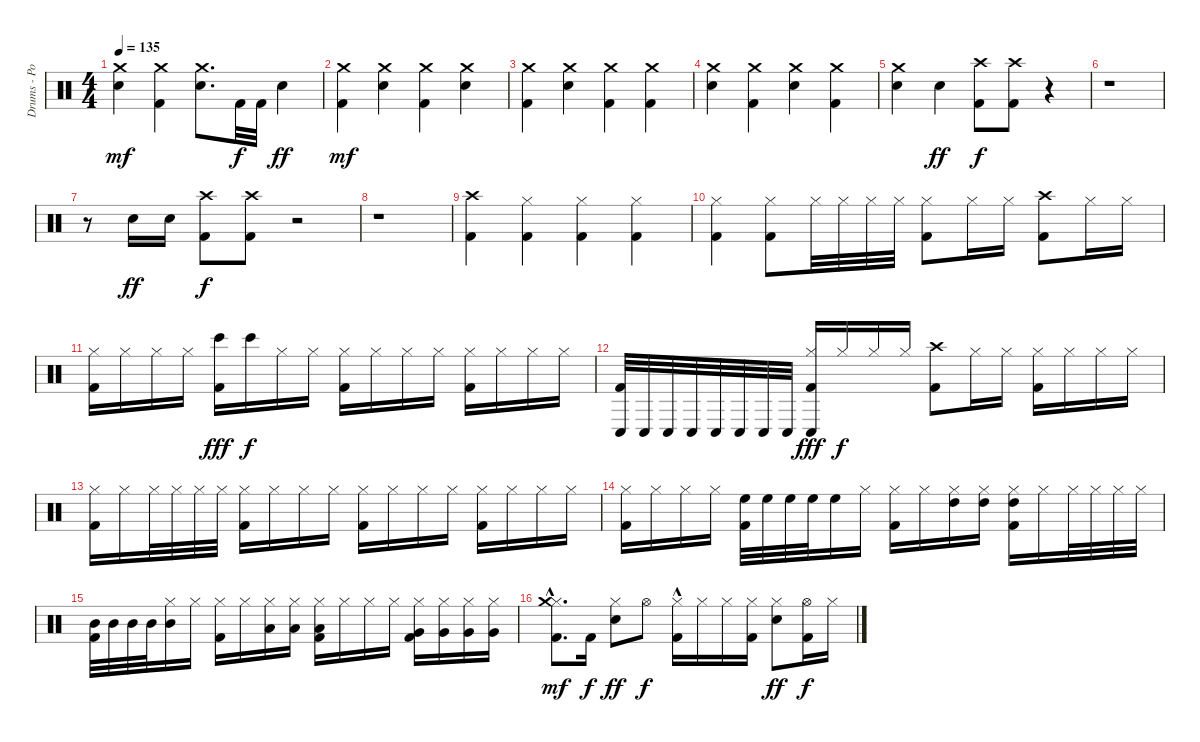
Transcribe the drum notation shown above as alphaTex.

\track ("Drums - Portnoy" "Drums - Po") {instrument percussion}
\staff {score}
\articulation defaults
\ts (4 4)
\tempo 135
\clef neutral
\ks c
("Electric Snare (hit)" "Crash medium (hit)").4{dy mf} ("Kick (hit) 2" "Crash medium (hit)").4 ("Electric Snare (hit)" "Crash medium (hit)").8{d} "Kick (hit) 2".32{dy f} "Kick (hit) 2".32 "Electric Snare (hit)".4{dy ff} |
("Kick (hit) 2" "Crash medium (hit)").4{dy mf} ("Electric Snare (hit)" "Crash medium (hit)").4 ("Kick (hit) 2" "Crash medium (hit)").4 ("Electric Snare (hit)" "Crash medium (hit)").4 |
("Kick (hit) 2" "Crash medium (hit)").4 ("Electric Snare (hit)" "Crash medium (hit)").4 ("Kick (hit) 2" "Crash medium (hit)").4 ("Kick (hit) 2" "Crash medium (hit)").4 |
("Electric Snare (hit)" "Crash medium (hit)").4 ("Kick (hit) 2" "Crash medium (hit)").4 ("Electric Snare (hit)" "Crash medium (hit)").4 ("Kick (hit) 2" "Crash medium (hit)").4 |
("Electric Snare (hit)" "Crash medium (hit)").4 "Electric Snare (hit)".4{dy ff} ("Kick (hit) 2" "Crash high (hit)").8{dy f} ("Crash high (hit)" "Kick (hit) 2").8 r.4 |
r.1 |
r.8 "Electric Snare (hit)".16{dy ff volume 12} "Electric Snare (hit)".16 ("Crash high (hit)" "Kick (hit) 2").8{dy f} ("Crash high (hit)" "Kick (hit) 2").8 r.2 |
r.1 |
("Kick (hit) 2" "Crash high (hit)").4 ("Kick (hit) 2" "Hi-Hat (closed)").4 ("Kick (hit) 2" "Hi-Hat (closed)").4 ("Kick (hit) 2" "Hi-Hat (closed)").4 |
("Kick (hit) 2" "Hi-Hat (closed)").4 ("Kick (hit) 2" "Hi-Hat (closed)").8 "Hi-Hat (closed)".32 "Hi-Hat (closed)".32 "Hi-Hat (closed)".32 "Hi-Hat (closed)".32 ("Kick (hit) 2" "Hi-Hat (closed)").8 "Hi-Hat (closed)".16 "Hi-Hat (closed)".16 ("Kick (hit) 2" "Crash high (hit)").8 "Hi-Hat (closed)".16 "Hi-Hat (closed)".16 |
("Kick (hit) 2" "Hi-Hat (closed)").16 "Hi-Hat (closed)".16 "Hi-Hat (closed)".16 "Hi-Hat (closed)".16 ("Kick (hit) 2" "Bongo High (hit)").16{dy fff} "Bongo High (hit)".16{dy f} "Hi-Hat (closed)".16 "Hi-Hat (closed)".16 ("Kick (hit) 2" "Hi-Hat (closed)").16 "Hi-Hat (closed)".16 "Hi-Hat (closed)".16 "Hi-Hat (closed)".16 ("Kick (hit) 2" "Hi-Hat (closed)").16 "Hi-Hat (closed)".16 "Hi-Hat (closed)".16 "Hi-Hat (closed)".16 |
("Kick (hit) 2" "Conga low (hit)").32 "Conga low (hit)".32 "Conga low (hit)".32 "Conga low (hit)".32 "Conga low (hit)".32 "Conga low (hit)".32 "Conga low (hit)".32 "Conga low (hit)".32 ("Kick (hit) 2" "Hi-Hat (closed)" "Conga low (hit)").16{dy fff} "Hi-Hat (closed)".16{dy f} "Hi-Hat (closed)".16 "Hi-Hat (closed)".16 ("Kick (hit) 2" "Crash high (hit)").8 "Hi-Hat (closed)".16 "Hi-Hat (closed)".16 ("Kick (hit) 2" "Hi-Hat (closed)").16 "Hi-Hat (closed)".16 "Hi-Hat (closed)".16 "Hi-Hat (closed)".16 |
("Kick (hit) 2" "Hi-Hat (closed)").16 "Hi-Hat (closed)".16 "Hi-Hat (closed)".32 "Hi-Hat (closed)".32 "Hi-Hat (closed)".32 "Hi-Hat (closed)".32 ("Kick (hit) 2" "Hi-Hat (closed)").16 "Hi-Hat (closed)".16 "Hi-Hat (closed)".16 "Hi-Hat (closed)".16 ("Kick (hit) 2" "Hi-Hat (closed)").16 "Hi-Hat (closed)".16 "Hi-Hat (closed)".16 "Hi-Hat (closed)".16 ("Kick (hit) 2" "Hi-Hat (closed)").16 "Hi-Hat (closed)".16 "Hi-Hat (closed)".16 "Hi-Hat (closed)".16 |
("Kick (hit) 2" "Hi-Hat (closed)").16 "Hi-Hat (closed)".16 "Hi-Hat (closed)".16 "Hi-Hat (closed)".16 ("Kick (hit) 2" "High Floor Tom (hit)").32 "High Floor Tom (hit)".32 "High Floor Tom (hit)".32 "High Floor Tom (hit)".32 "High Floor Tom (hit)".16 "Hi-Hat (closed)".16 ("Kick (hit) 2" "Hi-Hat (closed)").16 "Hi-Hat (closed)".16 ("Hi-Hat (closed)" "High Tom (hit)").16 ("Hi-Hat (closed)" "High Tom (hit)").16 ("Kick (hit) 2" "Hi-Hat (closed)" "High Tom (hit)").16 "Hi-Hat (closed)".16 "Hi-Hat (closed)".32 "Hi-Hat (closed)".32 "Hi-Hat (closed)".32 "Hi-Hat (closed)".32 |
("Kick (hit) 2" "Mid Tom (hit)").32 "Mid Tom (hit)".32 "Mid Tom (hit)".32 "Mid Tom (hit)".32 ("Hi-Hat (closed)" "Mid Tom (hit)").16 "Hi-Hat (closed)".16 ("Kick (hit) 2" "Hi-Hat (closed)").16 "Hi-Hat (closed)".16 ("Hi-Hat (closed)" "Low Tom (hit)").16 ("Hi-Hat (closed)" "Low Tom (hit)").16 ("Kick (hit) 2" "Hi-Hat (closed)" "Low Tom (hit)").16 "Hi-Hat (closed)".16 "Hi-Hat (closed)".16 "Hi-Hat (closed)".16 ("Kick (hit) 2" "Hi-Hat (closed)" "Very Low Tom (hit)").16 ("Hi-Hat (closed)" "Very Low Tom (hit)").16 ("Hi-Hat (closed)" "Very Low Tom (hit)").16 ("Hi-Hat (closed)" "Very Low Tom (hit)").16 |
("Kick (hit) 2"{hac} "Hi-Hat (closed)" "Crash medium (hit)").8{d dy mf} "Kick (hit) 2".16{dy f} ("Hi-Hat (closed)" "Electric Snare (hit)").8{dy ff} "Hi-Hat (open)".8{dy f} ("Kick (hit) 2"{hac} "Hi-Hat (closed)").16 "Hi-Hat (closed)".16 "Hi-Hat (closed)".16 ("Kick (hit) 2" "Hi-Hat (closed)").16 ("Hi-Hat (closed)" "Electric Snare (hit)").8{dy ff} ("Hi-Hat (open)" "Kick (hit) 2").16{dy f} "Hi-Hat (closed)".16
